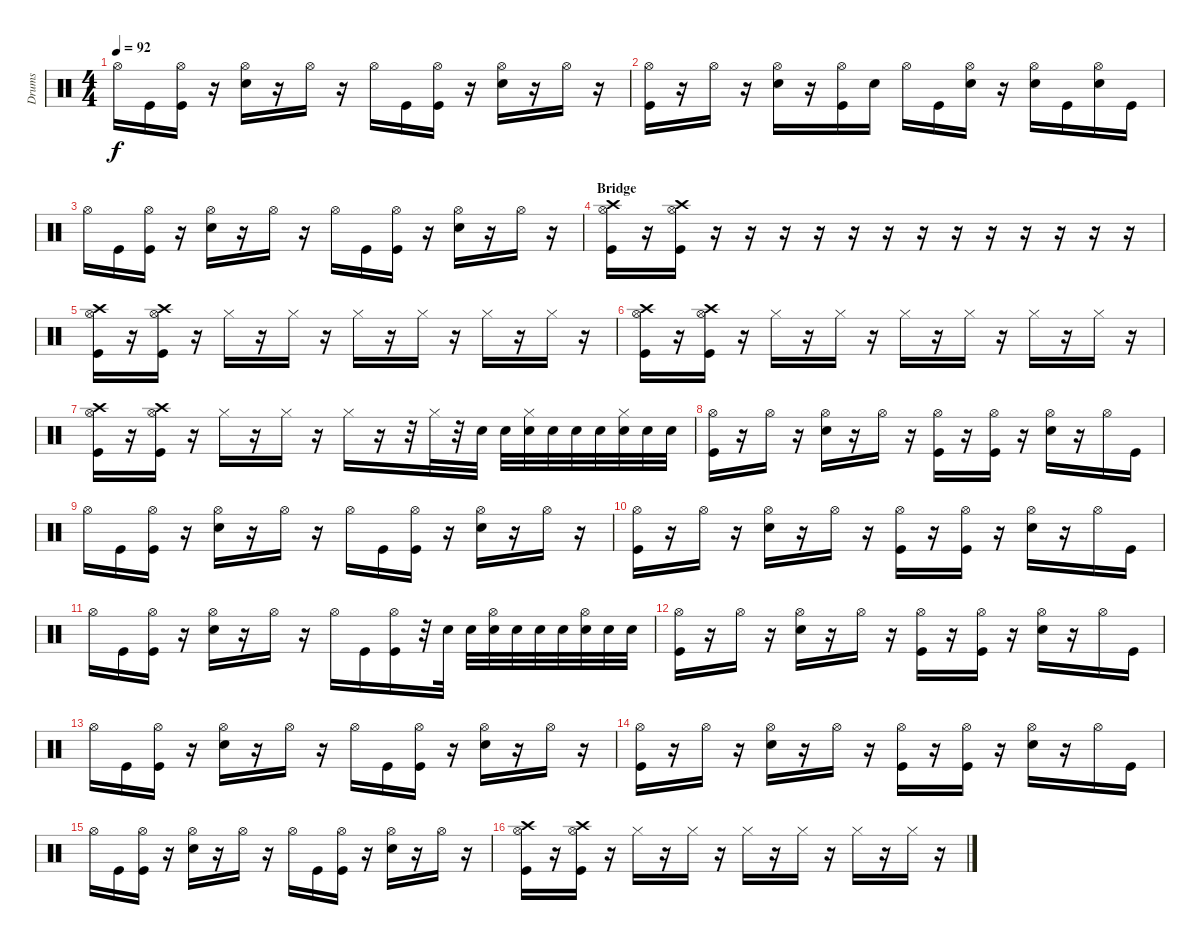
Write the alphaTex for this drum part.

\track ("Drums" "Drums") {instrument percussion}
\staff {score}
\articulation defaults
\ts (4 4)
\tempo 92
\clef neutral
\ks c "Hi-Hat (open)".16{dy f} "Kick (hit)".16
("Hi-Hat (open)" "Kick (hit)").16 r.16 ("Hi-Hat (open)" "Snare (hit) 2").16 r.16 "Hi-Hat (open)".16 r.16 "Hi-Hat (open)".16 "Kick (hit)".16 ("Hi-Hat (open)" "Kick (hit)").16 r.16 ("Hi-Hat (open)" "Snare (hit) 2").16 r.16 "Hi-Hat (open)".16 r.16 |
("Hi-Hat (open)" "Kick (hit)").16 r.16 "Hi-Hat (open)".16 r.16 ("Hi-Hat (open)" "Snare (hit) 2").16 r.16 ("Hi-Hat (open)" "Kick (hit)").16 "Snare (hit) 2".16 "Hi-Hat (open)".16 "Kick (hit)".16 ("Hi-Hat (open)" "Snare (hit) 2").16 r.16 ("Hi-Hat (open)" "Snare (hit) 2").16 "Kick (hit)".16 ("Hi-Hat (open)" "Snare (hit) 2").16 "Kick (hit)".16 |
"Hi-Hat (open)".16 "Kick (hit)".16 ("Hi-Hat (open)" "Kick (hit)").16 r.16 ("Hi-Hat (open)" "Snare (hit) 2").16 r.16 "Hi-Hat (open)".16 r.16 "Hi-Hat (open)".16 "Kick (hit)".16 ("Hi-Hat (open)" "Kick (hit)").16 r.16 ("Hi-Hat (open)" "Snare (hit) 2").16 r.16 "Hi-Hat (open)".16 r.16 |
\section ("" "Bridge")
("Hi-Hat (open)" "Crash high (hit)" "Kick (hit)").16 r.16 ("Hi-Hat (open)" "Crash high (hit)" "Kick (hit)").16 r.16 r.16 r.16 r.16 r.16 r.16 r.16 r.16 r.16 r.16 r.16 r.16 r.16 |
("Hi-Hat (open)" "Crash high (hit)" "Kick (hit)").16 r.16 ("Hi-Hat (open)" "Crash high (hit)" "Kick (hit)").16 r.16 "Hi-Hat (closed)".16 r.16 "Hi-Hat (closed)".16 r.16 "Hi-Hat (closed)".16 r.16 "Hi-Hat (closed)".16 r.16 "Hi-Hat (closed)".16 r.16 "Hi-Hat (closed)".16 r.16 |
("Hi-Hat (open)" "Crash high (hit)" "Kick (hit)").16 r.16 ("Hi-Hat (open)" "Crash high (hit)" "Kick (hit)").16 r.16 "Hi-Hat (closed)".16 r.16 "Hi-Hat (closed)".16 r.16 "Hi-Hat (closed)".16 r.16 "Hi-Hat (closed)".16 r.16 "Hi-Hat (closed)".16 r.16 "Hi-Hat (closed)".16 r.16 |
("Hi-Hat (open)" "Crash high (hit)" "Kick (hit)").16 r.16 ("Hi-Hat (open)" "Crash high (hit)" "Kick (hit)").16 r.16 "Hi-Hat (closed)".16 r.16 "Hi-Hat (closed)".16 r.16 "Hi-Hat (closed)".16 r.16 r.32 "Hi-Hat (closed)".32 r.32 "Snare (hit) 2".32 "Snare (hit) 2".32 ("Hi-Hat (closed)" "Snare (hit) 2").32 "Snare (hit) 2".32 "Snare (hit) 2".32 "Snare (hit) 2".32 ("Hi-Hat (closed)" "Snare (hit) 2").32 "Snare (hit) 2".32 "Snare (hit) 2".32 |
("Hi-Hat (open)" "Kick (hit)").16 r.16 "Hi-Hat (open)".16 r.16 ("Hi-Hat (open)" "Snare (hit) 2").16 r.16 "Hi-Hat (open)".16 r.16 ("Hi-Hat (open)" "Kick (hit)").16 r.16 ("Hi-Hat (open)" "Kick (hit)").16 r.16 ("Hi-Hat (open)" "Snare (hit) 2").16 r.16 "Hi-Hat (open)".16 "Kick (hit)".16 |
"Hi-Hat (open)".16 "Kick (hit)".16 ("Hi-Hat (open)" "Kick (hit)").16 r.16 ("Hi-Hat (open)" "Snare (hit) 2").16 r.16 "Hi-Hat (open)".16 r.16 "Hi-Hat (open)".16 "Kick (hit)".16 ("Hi-Hat (open)" "Kick (hit)").16 r.16 ("Hi-Hat (open)" "Snare (hit) 2").16 r.16 "Hi-Hat (open)".16 r.16 |
("Hi-Hat (open)" "Kick (hit)").16 r.16 "Hi-Hat (open)".16 r.16 ("Hi-Hat (open)" "Snare (hit) 2").16 r.16 "Hi-Hat (open)".16 r.16 ("Hi-Hat (open)" "Kick (hit)").16 r.16 ("Hi-Hat (open)" "Kick (hit)").16 r.16 ("Hi-Hat (open)" "Snare (hit) 2").16 r.16 "Hi-Hat (open)".16 "Kick (hit)".16 |
"Hi-Hat (open)".16 "Kick (hit)".16 ("Hi-Hat (open)" "Kick (hit)").16 r.16 ("Hi-Hat (open)" "Snare (hit) 2").16 r.16 "Hi-Hat (open)".16 r.16 "Hi-Hat (open)".16 "Kick (hit)".16 ("Hi-Hat (open)" "Kick (hit)").16 r.32 "Snare (hit) 2".32 "Snare (hit) 2".32 ("Hi-Hat (open)" "Snare (hit) 2").32 "Snare (hit) 2".32 "Snare (hit) 2".32 "Snare (hit) 2".32 ("Hi-Hat (open)" "Snare (hit) 2").32 "Snare (hit) 2".32 "Snare (hit) 2".32 |
("Hi-Hat (open)" "Kick (hit)").16 r.16 "Hi-Hat (open)".16 r.16 ("Hi-Hat (open)" "Snare (hit) 2").16 r.16 "Hi-Hat (open)".16 r.16 ("Hi-Hat (open)" "Kick (hit)").16 r.16 ("Hi-Hat (open)" "Kick (hit)").16 r.16 ("Hi-Hat (open)" "Snare (hit) 2").16 r.16 "Hi-Hat (open)".16 "Kick (hit)".16 |
"Hi-Hat (open)".16 "Kick (hit)".16 ("Hi-Hat (open)" "Kick (hit)").16 r.16 ("Hi-Hat (open)" "Snare (hit) 2").16 r.16 "Hi-Hat (open)".16 r.16 "Hi-Hat (open)".16 "Kick (hit)".16 ("Hi-Hat (open)" "Kick (hit)").16 r.16 ("Hi-Hat (open)" "Snare (hit) 2").16 r.16 "Hi-Hat (open)".16 r.16 |
("Hi-Hat (open)" "Kick (hit)").16 r.16 "Hi-Hat (open)".16 r.16 ("Hi-Hat (open)" "Snare (hit) 2").16 r.16 "Hi-Hat (open)".16 r.16 ("Hi-Hat (open)" "Kick (hit)").16 r.16 ("Hi-Hat (open)" "Kick (hit)").16 r.16 ("Hi-Hat (open)" "Snare (hit) 2").16 r.16 "Hi-Hat (open)".16 "Kick (hit)".16 |
"Hi-Hat (open)".16 "Kick (hit)".16 ("Hi-Hat (open)" "Kick (hit)").16 r.16 ("Hi-Hat (open)" "Snare (hit) 2").16 r.16 "Hi-Hat (open)".16 r.16 "Hi-Hat (open)".16 "Kick (hit)".16 ("Hi-Hat (open)" "Kick (hit)").16 r.16 ("Hi-Hat (open)" "Snare (hit) 2").16 r.16 "Hi-Hat (open)".16 r.16 |
("Hi-Hat (open)" "Crash high (hit)" "Kick (hit)").16 r.16 ("Hi-Hat (open)" "Crash high (hit)" "Kick (hit)").16 r.16 "Hi-Hat (closed)".16 r.16 "Hi-Hat (closed)".16 r.16 "Hi-Hat (closed)".16 r.16 "Hi-Hat (closed)".16 r.16 "Hi-Hat (closed)".16 r.16 "Hi-Hat (closed)".16 r.16
